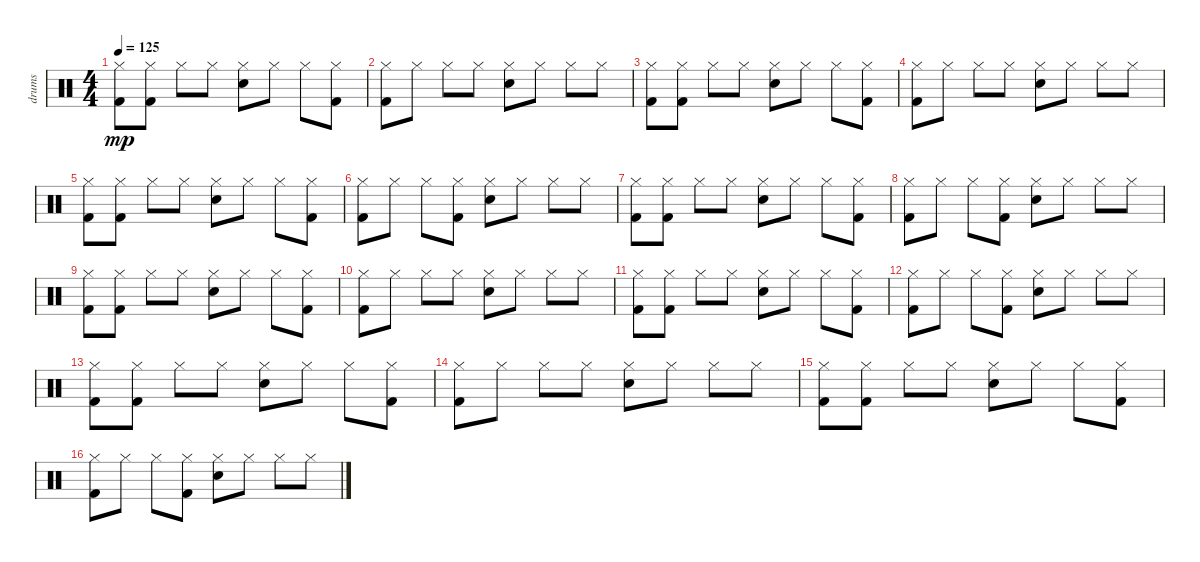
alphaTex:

\track ("drums" "drums") {instrument percussion}
\staff {score}
\articulation defaults
\ts (4 4)
\tempo 125
\clef neutral
\ks c
("Hi-Hat (closed)" "Kick (hit) 2").8{dy mp} ("Hi-Hat (closed)" "Kick (hit) 2").8 "Hi-Hat (closed)".8 "Hi-Hat (closed)".8 ("Hi-Hat (closed)" "Snare (hit) 2").8 "Hi-Hat (closed)".8 "Hi-Hat (closed)".8 ("Hi-Hat (closed)" "Kick (hit) 2").8 |
("Hi-Hat (closed)" "Kick (hit) 2").8 "Hi-Hat (closed)".8 "Hi-Hat (closed)".8 "Hi-Hat (closed)".8 ("Hi-Hat (closed)" "Snare (hit) 2").8 "Hi-Hat (closed)".8 "Hi-Hat (closed)".8 "Hi-Hat (closed)".8 |
("Hi-Hat (closed)" "Kick (hit) 2").8 ("Hi-Hat (closed)" "Kick (hit) 2").8 "Hi-Hat (closed)".8 "Hi-Hat (closed)".8 ("Hi-Hat (closed)" "Snare (hit) 2").8 "Hi-Hat (closed)".8 "Hi-Hat (closed)".8 ("Hi-Hat (closed)" "Kick (hit) 2").8 |
("Hi-Hat (closed)" "Kick (hit) 2").8 "Hi-Hat (closed)".8 "Hi-Hat (closed)".8 "Hi-Hat (closed)".8 ("Hi-Hat (closed)" "Snare (hit) 2").8 "Hi-Hat (closed)".8 "Hi-Hat (closed)".8 "Hi-Hat (closed)".8 |
("Hi-Hat (closed)" "Kick (hit) 2").8 ("Hi-Hat (closed)" "Kick (hit) 2").8 "Hi-Hat (closed)".8 "Hi-Hat (closed)".8 ("Hi-Hat (closed)" "Snare (hit) 2").8 "Hi-Hat (closed)".8 "Hi-Hat (closed)".8 ("Hi-Hat (closed)" "Kick (hit) 2").8 |
("Hi-Hat (closed)" "Kick (hit) 2").8 "Hi-Hat (closed)".8 "Hi-Hat (closed)".8 ("Hi-Hat (closed)" "Kick (hit) 2").8 ("Hi-Hat (closed)" "Snare (hit) 2").8 "Hi-Hat (closed)".8 "Hi-Hat (closed)".8 "Hi-Hat (closed)".8 |
("Hi-Hat (closed)" "Kick (hit) 2").8 ("Hi-Hat (closed)" "Kick (hit) 2").8 "Hi-Hat (closed)".8 "Hi-Hat (closed)".8 ("Hi-Hat (closed)" "Snare (hit) 2").8 "Hi-Hat (closed)".8 "Hi-Hat (closed)".8 ("Hi-Hat (closed)" "Kick (hit) 2").8 |
("Hi-Hat (closed)" "Kick (hit) 2").8 "Hi-Hat (closed)".8 "Hi-Hat (closed)".8 ("Hi-Hat (closed)" "Kick (hit) 2").8 ("Hi-Hat (closed)" "Snare (hit) 2").8 "Hi-Hat (closed)".8 "Hi-Hat (closed)".8 "Hi-Hat (closed)".8 |
("Hi-Hat (closed)" "Kick (hit) 2").8 ("Hi-Hat (closed)" "Kick (hit) 2").8 "Hi-Hat (closed)".8 "Hi-Hat (closed)".8 ("Hi-Hat (closed)" "Snare (hit) 2").8 "Hi-Hat (closed)".8 "Hi-Hat (closed)".8 ("Hi-Hat (closed)" "Kick (hit) 2").8 |
("Hi-Hat (closed)" "Kick (hit) 2").8 "Hi-Hat (closed)".8 "Hi-Hat (closed)".8 "Hi-Hat (closed)".8 ("Hi-Hat (closed)" "Snare (hit) 2").8 "Hi-Hat (closed)".8 "Hi-Hat (closed)".8 "Hi-Hat (closed)".8 |
("Hi-Hat (closed)" "Kick (hit) 2").8 ("Hi-Hat (closed)" "Kick (hit) 2").8 "Hi-Hat (closed)".8 "Hi-Hat (closed)".8 ("Hi-Hat (closed)" "Snare (hit) 2").8 "Hi-Hat (closed)".8 "Hi-Hat (closed)".8 ("Hi-Hat (closed)" "Kick (hit) 2").8 |
("Hi-Hat (closed)" "Kick (hit) 2").8 "Hi-Hat (closed)".8 "Hi-Hat (closed)".8 ("Hi-Hat (closed)" "Kick (hit) 2").8 ("Hi-Hat (closed)" "Snare (hit) 2").8 "Hi-Hat (closed)".8 "Hi-Hat (closed)".8 "Hi-Hat (closed)".8 |
("Hi-Hat (closed)" "Kick (hit) 2").8 ("Hi-Hat (closed)" "Kick (hit) 2").8 "Hi-Hat (closed)".8 "Hi-Hat (closed)".8 ("Hi-Hat (closed)" "Snare (hit) 2").8 "Hi-Hat (closed)".8 "Hi-Hat (closed)".8 ("Hi-Hat (closed)" "Kick (hit) 2").8 |
("Hi-Hat (closed)" "Kick (hit) 2").8 "Hi-Hat (closed)".8 "Hi-Hat (closed)".8 "Hi-Hat (closed)".8 ("Hi-Hat (closed)" "Snare (hit) 2").8 "Hi-Hat (closed)".8 "Hi-Hat (closed)".8 "Hi-Hat (closed)".8 |
("Hi-Hat (closed)" "Kick (hit) 2").8 ("Hi-Hat (closed)" "Kick (hit) 2").8 "Hi-Hat (closed)".8 "Hi-Hat (closed)".8 ("Hi-Hat (closed)" "Snare (hit) 2").8 "Hi-Hat (closed)".8 "Hi-Hat (closed)".8 ("Hi-Hat (closed)" "Kick (hit) 2").8 |
("Hi-Hat (closed)" "Kick (hit) 2").8 "Hi-Hat (closed)".8 "Hi-Hat (closed)".8 ("Hi-Hat (closed)" "Kick (hit) 2").8 ("Hi-Hat (closed)" "Snare (hit) 2").8 "Hi-Hat (closed)".8 "Hi-Hat (closed)".8 "Hi-Hat (closed)".8
